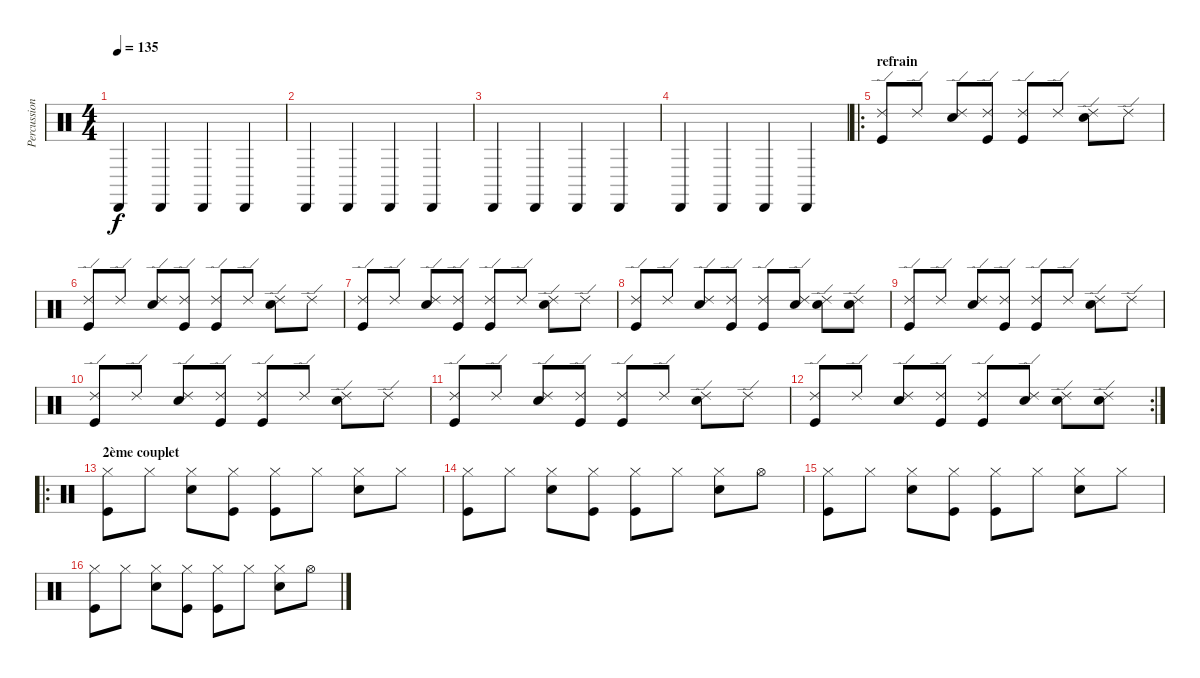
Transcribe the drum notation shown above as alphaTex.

\track ("Percussions" "Percussion") {instrument percussion}
\staff {score}
\articulation defaults
\ts (4 4)
\tempo 135
\clef neutral
\ks c "Cabasa (hit)".4{dy f} "Cabasa (hit)".4 "Cabasa (hit)".4 "Cabasa (hit)".4
|
"Cabasa (hit)".4 "Cabasa (hit)".4 "Cabasa (hit)".4 "Cabasa (hit)".4 |
"Cabasa (hit)".4 "Cabasa (hit)".4 "Cabasa (hit)".4 "Cabasa (hit)".4 |
"Cabasa (hit)".4 "Cabasa (hit)".4 "Cabasa (hit)".4 "Cabasa (hit)".4 |
\ro
\section ("" "refrain")
("Kick (hit)" "Ride (edge) 2").8 "Ride (edge) 2".8 ("Snare (hit) 2" "Ride (edge) 2").8 ("Kick (hit)" "Ride (edge) 2").8 ("Kick (hit)" "Ride (edge) 2").8 "Ride (edge) 2".8 ("Snare (hit) 2" "Ride (edge) 2").8 "Ride (edge) 2".8 |
("Kick (hit)" "Ride (edge) 2").8 "Ride (edge) 2".8 ("Snare (hit) 2" "Ride (edge) 2").8 ("Kick (hit)" "Ride (edge) 2").8 ("Kick (hit)" "Ride (edge) 2").8 "Ride (edge) 2".8 ("Snare (hit) 2" "Ride (edge) 2").8 "Ride (edge) 2".8 |
("Kick (hit)" "Ride (edge) 2").8 "Ride (edge) 2".8 ("Snare (hit) 2" "Ride (edge) 2").8 ("Kick (hit)" "Ride (edge) 2").8 ("Kick (hit)" "Ride (edge) 2").8 "Ride (edge) 2".8 ("Snare (hit) 2" "Ride (edge) 2").8 "Ride (edge) 2".8 |
("Kick (hit)" "Ride (edge) 2").8 "Ride (edge) 2".8 ("Snare (hit) 2" "Ride (edge) 2").8 ("Kick (hit)" "Ride (edge) 2").8 ("Kick (hit)" "Ride (edge) 2").8 ("Snare (hit) 2" "Ride (edge) 2").8 ("Snare (hit) 2" "Ride (edge) 2").8 ("Snare (hit) 2" "Ride (edge) 2").8 |
("Kick (hit)" "Ride (edge) 2").8 "Ride (edge) 2".8 ("Snare (hit) 2" "Ride (edge) 2").8 ("Kick (hit)" "Ride (edge) 2").8 ("Kick (hit)" "Ride (edge) 2").8 "Ride (edge) 2".8 ("Snare (hit) 2" "Ride (edge) 2").8 "Ride (edge) 2".8 |
("Kick (hit)" "Ride (edge) 2").8 "Ride (edge) 2".8 ("Snare (hit) 2" "Ride (edge) 2").8 ("Kick (hit)" "Ride (edge) 2").8 ("Kick (hit)" "Ride (edge) 2").8 "Ride (edge) 2".8 ("Snare (hit) 2" "Ride (edge) 2").8 "Ride (edge) 2".8 |
("Kick (hit)" "Ride (edge) 2").8 "Ride (edge) 2".8 ("Snare (hit) 2" "Ride (edge) 2").8 ("Kick (hit)" "Ride (edge) 2").8 ("Kick (hit)" "Ride (edge) 2").8 "Ride (edge) 2".8 ("Snare (hit) 2" "Ride (edge) 2").8 "Ride (edge) 2".8 |
\rc 2
("Kick (hit)" "Ride (edge) 2").8 "Ride (edge) 2".8 ("Snare (hit) 2" "Ride (edge) 2").8 ("Kick (hit)" "Ride (edge) 2").8 ("Kick (hit)" "Ride (edge) 2").8 ("Snare (hit) 2" "Ride (edge) 2").8 ("Snare (hit) 2" "Ride (edge) 2").8 ("Snare (hit) 2" "Ride (edge) 2").8 |
\ro
\section ("" "2ème couplet")
("Kick (hit)" "Hi-Hat (closed)").8 "Hi-Hat (closed)".8 ("Snare (hit) 2" "Hi-Hat (closed)").8 ("Kick (hit)" "Hi-Hat (closed)").8 ("Kick (hit)" "Hi-Hat (closed)").8 "Hi-Hat (closed)".8 ("Snare (hit) 2" "Hi-Hat (closed)").8 "Hi-Hat (closed)".8 |
("Kick (hit)" "Hi-Hat (closed)").8 "Hi-Hat (closed)".8 ("Snare (hit) 2" "Hi-Hat (closed)").8 ("Kick (hit)" "Hi-Hat (closed)").8 ("Kick (hit)" "Hi-Hat (closed)").8 "Hi-Hat (closed)".8 ("Snare (hit) 2" "Hi-Hat (closed)").8 "Hi-Hat (open)".8 |
("Kick (hit)" "Hi-Hat (closed)").8 "Hi-Hat (closed)".8 ("Snare (hit) 2" "Hi-Hat (closed)").8 ("Kick (hit)" "Hi-Hat (closed)").8 ("Kick (hit)" "Hi-Hat (closed)").8 "Hi-Hat (closed)".8 ("Snare (hit) 2" "Hi-Hat (closed)").8 "Hi-Hat (closed)".8 |
("Kick (hit)" "Hi-Hat (closed)").8 "Hi-Hat (closed)".8 ("Snare (hit) 2" "Hi-Hat (closed)").8 ("Kick (hit)" "Hi-Hat (closed)").8 ("Kick (hit)" "Hi-Hat (closed)").8 "Hi-Hat (closed)".8 ("Snare (hit) 2" "Hi-Hat (closed)").8 "Hi-Hat (open)".8
